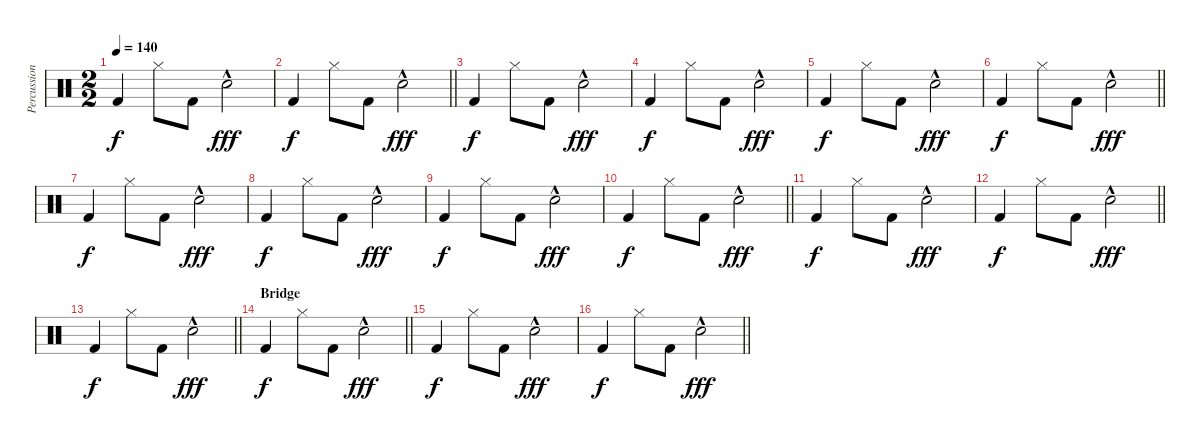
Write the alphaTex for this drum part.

\track ("Percussion" "Percussion") {instrument percussion}
\staff {score}
\articulation defaults
\ts (2 2)
\tempo 140
\clef neutral
\ks c "Kick (hit) 2".4{dy f} "Hi-Hat (closed)".8 "Kick (hit) 2".8 "Hand Clap (hit)"{hac}.2{dy fff}
|
\barLineRight lightlight "Kick (hit) 2".4{dy f} "Hi-Hat (closed)".8 "Kick (hit) 2".8 "Hand Clap (hit)"{hac}.2{dy fff}
|
"Kick (hit) 2".4{dy f} "Hi-Hat (closed)".8 "Kick (hit) 2".8 "Hand Clap (hit)"{hac}.2{dy fff} |
"Kick (hit) 2".4{dy f} "Hi-Hat (closed)".8 "Kick (hit) 2".8 "Hand Clap (hit)"{hac}.2{dy fff} |
"Kick (hit) 2".4{dy f} "Hi-Hat (closed)".8 "Kick (hit) 2".8 "Hand Clap (hit)"{hac}.2{dy fff} |
\barLineRight lightlight "Kick (hit) 2".4{dy f} "Hi-Hat (closed)".8 "Kick (hit) 2".8 "Hand Clap (hit)"{hac}.2{dy fff}
|
"Kick (hit) 2".4{dy f} "Hi-Hat (closed)".8 "Kick (hit) 2".8 "Hand Clap (hit)"{hac}.2{dy fff} |
"Kick (hit) 2".4{dy f} "Hi-Hat (closed)".8 "Kick (hit) 2".8 "Hand Clap (hit)"{hac}.2{dy fff} |
"Kick (hit) 2".4{dy f} "Hi-Hat (closed)".8 "Kick (hit) 2".8 "Hand Clap (hit)"{hac}.2{dy fff} |
\barLineRight lightlight "Kick (hit) 2".4{dy f} "Hi-Hat (closed)".8 "Kick (hit) 2".8 "Hand Clap (hit)"{hac}.2{dy fff}
|
"Kick (hit) 2".4{dy f} "Hi-Hat (closed)".8 "Kick (hit) 2".8 "Hand Clap (hit)"{hac}.2{dy fff} |
\barLineRight lightlight "Kick (hit) 2".4{dy f} "Hi-Hat (closed)".8 "Kick (hit) 2".8 "Hand Clap (hit)"{hac}.2{dy fff}
|
\barLineRight lightlight "Kick (hit) 2".4{dy f} "Hi-Hat (closed)".8 "Kick (hit) 2".8 "Hand Clap (hit)"{hac}.2{dy fff}
|
\section ("" "Bridge")
\barLineRight lightlight "Kick (hit) 2".4{dy f} "Hi-Hat (closed)".8 "Kick (hit) 2".8 "Hand Clap (hit)"{hac}.2{dy fff}
|
"Kick (hit) 2".4{dy f} "Hi-Hat (closed)".8 "Kick (hit) 2".8 "Hand Clap (hit)"{hac}.2{dy fff} |
\barLineRight lightlight "Kick (hit) 2".4{dy f} "Hi-Hat (closed)".8 "Kick (hit) 2".8 "Hand Clap (hit)"{hac}.2{dy fff}
